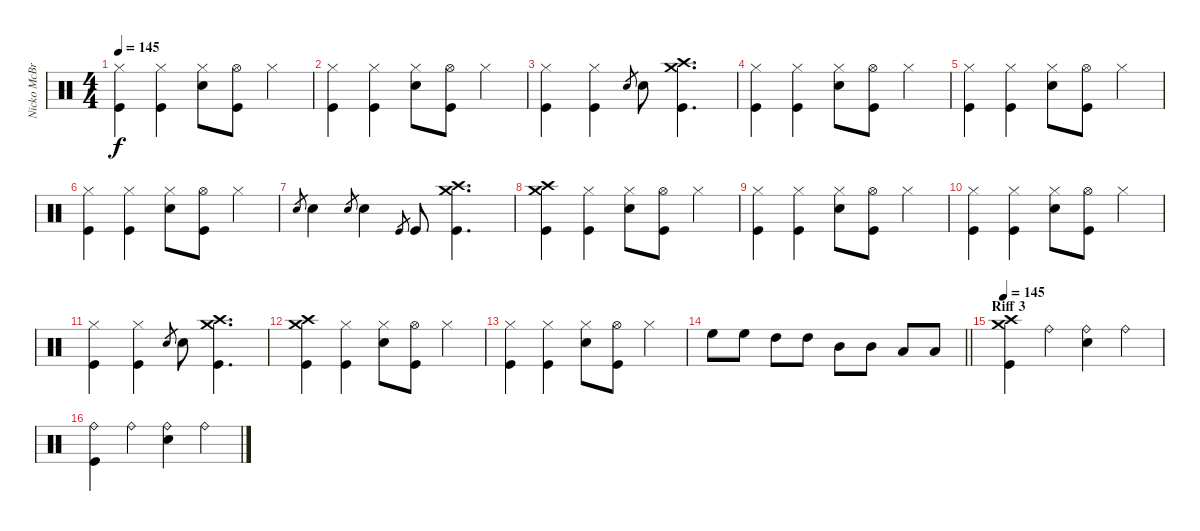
\track ("Nicko McBrain" "Nicko McBr") {instrument percussion}
\staff {score}
\articulation defaults
\ts (4 4)
\tempo 145
\clef neutral
\ks c
("Hi-Hat (closed)" "Kick (hit)").4{dy f} ("Hi-Hat (closed)" "Kick (hit)").4 ("Hi-Hat (closed)" "Snare (hit) 2").8 ("Hi-Hat (open)" "Kick (hit)").8 "Hi-Hat (closed)".4 |
("Hi-Hat (closed)" "Kick (hit)").4 ("Hi-Hat (closed)" "Kick (hit)").4 ("Hi-Hat (closed)" "Snare (hit) 2").8 ("Hi-Hat (open)" "Kick (hit)").8 "Hi-Hat (closed)".4 |
("Hi-Hat (closed)" "Kick (hit)").4 ("Hi-Hat (closed)" "Kick (hit)").4 "Snare (hit) 2".8{gr} "Snare (hit) 2".8 ("Crash medium (hit)" "Crash high (hit)" "Kick (hit)").4{d} |
("Hi-Hat (closed)" "Kick (hit)").4 ("Hi-Hat (closed)" "Kick (hit)").4 ("Hi-Hat (closed)" "Snare (hit) 2").8 ("Hi-Hat (open)" "Kick (hit)").8 "Hi-Hat (closed)".4 |
("Hi-Hat (closed)" "Kick (hit)").4 ("Hi-Hat (closed)" "Kick (hit)").4 ("Hi-Hat (closed)" "Snare (hit) 2").8 ("Hi-Hat (open)" "Kick (hit)").8 "Hi-Hat (closed)".4 |
("Hi-Hat (closed)" "Kick (hit)").4 ("Hi-Hat (closed)" "Kick (hit)").4 ("Hi-Hat (closed)" "Snare (hit) 2").8 ("Hi-Hat (open)" "Kick (hit)").8 "Hi-Hat (closed)".4 |
"Snare (hit) 2".8{gr} "Snare (hit) 2".4 "Snare (hit) 2".8{gr} "Snare (hit) 2".4 "Kick (hit)".8{gr} "Kick (hit)".8 ("Crash medium (hit)" "Crash high (hit)" "Kick (hit)").4{d} |
("Crash medium (hit)" "Crash high (hit)" "Kick (hit)").4 ("Hi-Hat (closed)" "Kick (hit)").4 ("Hi-Hat (closed)" "Snare (hit) 2").8 ("Hi-Hat (open)" "Kick (hit)").8 "Hi-Hat (closed)".4 |
("Hi-Hat (closed)" "Kick (hit)").4 ("Hi-Hat (closed)" "Kick (hit)").4 ("Hi-Hat (closed)" "Snare (hit) 2").8 ("Hi-Hat (open)" "Kick (hit)").8 "Hi-Hat (closed)".4 |
("Hi-Hat (closed)" "Kick (hit)").4 ("Hi-Hat (closed)" "Kick (hit)").4 ("Hi-Hat (closed)" "Snare (hit) 2").8 ("Hi-Hat (open)" "Kick (hit)").8 "Hi-Hat (closed)".4 |
("Hi-Hat (closed)" "Kick (hit)").4 ("Hi-Hat (closed)" "Kick (hit)").4 "Snare (hit) 2".8{gr} "Snare (hit) 2".8 ("Crash medium (hit)" "Crash high (hit)" "Kick (hit)").4{d} |
("Crash medium (hit)" "Crash high (hit)" "Kick (hit)").4 ("Hi-Hat (closed)" "Kick (hit)").4 ("Hi-Hat (closed)" "Snare (hit) 2").8 ("Hi-Hat (open)" "Kick (hit)").8 "Hi-Hat (closed)".4 |
("Hi-Hat (closed)" "Kick (hit)").4 ("Hi-Hat (closed)" "Kick (hit)").4 ("Hi-Hat (closed)" "Snare (hit) 2").8 ("Hi-Hat (open)" "Kick (hit)").8 "Hi-Hat (closed)".4 |
\barLineRight lightlight "High Floor Tom (hit)".8 "High Floor Tom (hit)".8 "High Tom (hit)".8 "High Tom (hit)".8 "Mid Tom (hit)".8 "Mid Tom (hit)".8 "Low Tom (hit)".8 "Low Tom (hit)".8
|
\section ("" "Riff 3")
\tempo 145
("Crash medium (hit)" "Crash high (hit)" "Kick (hit)").4 "Ride (bell)".4 ("Ride (bell)" "Snare (hit) 2").4 "Ride (bell)".4 |
("Ride (bell)" "Kick (hit)").4 "Ride (bell)".4 ("Ride (bell)" "Snare (hit) 2").4 "Ride (bell)".4
